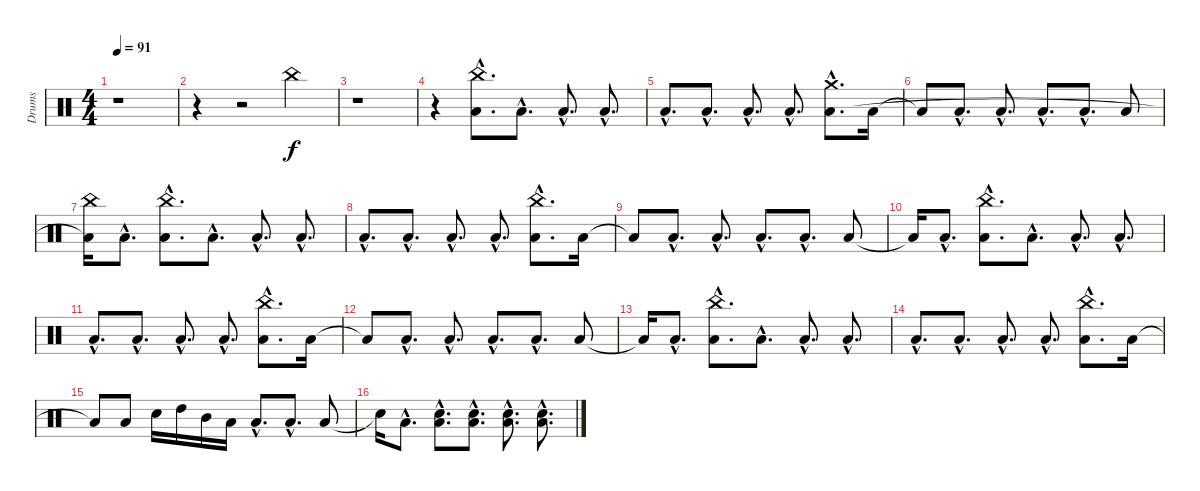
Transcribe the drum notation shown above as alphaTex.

\track ("Drums" "Drums") {instrument percussion}
\staff {score}
\articulation defaults
\ts (4 4)
\tempo 91
\clef neutral
\ks c
r.1{dy f} |
r.4 r.2 "China (hit)".4 |
r.1 |
r.4 ("China (hit)"{hac} "Low Tom (hit)"{hac}).8{d} "Low Tom (hit)"{hac}.8{d} "Low Tom (hit)"{hac}.8{d} "Low Tom (hit)"{hac}.8{d} |
"Low Tom (hit)"{hac}.8{d} "Low Tom (hit)"{hac}.8{d} "Low Tom (hit)"{hac}.8{d} "Low Tom (hit)"{hac}.8{d} ("Crash medium (hit)"{hac} "Low Tom (hit)"{hac}).8{d} "Low Tom (hit)".16 |
"Low Tom (hit)"{t}.8 "Low Tom (hit)"{hac}.8{d} "Low Tom (hit)"{hac}.8{d} "Low Tom (hit)"{hac}.8{d} "Low Tom (hit)"{hac}.8{d} "Low Tom (hit)".8 |
("China (hit)" "Low Tom (hit)"{t}).16 "Low Tom (hit)"{hac}.8{d} ("China (hit)"{hac} "Low Tom (hit)"{hac}).8{d} "Low Tom (hit)"{hac}.8{d} "Low Tom (hit)"{hac}.8{d} "Low Tom (hit)"{hac}.8{d} |
"Low Tom (hit)"{hac}.8{d} "Low Tom (hit)"{hac}.8{d} "Low Tom (hit)"{hac}.8{d} "Low Tom (hit)"{hac}.8{d} ("China (hit)"{hac} "Low Tom (hit)"{hac}).8{d} "Low Tom (hit)".16 |
"Low Tom (hit)"{t}.8 "Low Tom (hit)"{hac}.8{d} "Low Tom (hit)"{hac}.8{d} "Low Tom (hit)"{hac}.8{d} "Low Tom (hit)"{hac}.8{d} "Low Tom (hit)".8 |
"Low Tom (hit)"{t}.16 "Low Tom (hit)"{hac}.8{d} ("China (hit)"{hac} "Low Tom (hit)"{hac}).8{d} "Low Tom (hit)"{hac}.8{d} "Low Tom (hit)"{hac}.8{d} "Low Tom (hit)"{hac}.8{d} |
"Low Tom (hit)"{hac}.8{d} "Low Tom (hit)"{hac}.8{d} "Low Tom (hit)"{hac}.8{d} "Low Tom (hit)"{hac}.8{d} ("China (hit)"{hac} "Low Tom (hit)"{hac}).8{d} "Low Tom (hit)".16 |
"Low Tom (hit)"{t}.8 "Low Tom (hit)"{hac}.8{d} "Low Tom (hit)"{hac}.8{d} "Low Tom (hit)"{hac}.8{d} "Low Tom (hit)"{hac}.8{d} "Low Tom (hit)".8 |
"Low Tom (hit)"{t}.16 "Low Tom (hit)"{hac}.8{d} ("China (hit)"{hac} "Low Tom (hit)"{hac}).8{d} "Low Tom (hit)"{hac}.8{d} "Low Tom (hit)"{hac}.8{d} "Low Tom (hit)"{hac}.8{d} |
"Low Tom (hit)"{hac}.8{d} "Low Tom (hit)"{hac}.8{d} "Low Tom (hit)"{hac}.8{d} "Low Tom (hit)"{hac}.8{d} ("China (hit)"{hac} "Low Tom (hit)"{hac}).8{d} "Low Tom (hit)".16 |
"Low Tom (hit)"{t}.8 "Low Tom (hit)".8 "Electric Snare (hit)".16 "High Tom (hit)".16 "Mid Tom (hit)".16 "Low Tom (hit)".16 "Low Tom (hit)"{hac}.8{d} "Low Tom (hit)"{hac}.8{d} "Low Tom (hit)".8 |
"Snare (hit)"{t}.16 "Low Tom (hit)"{hac}.8{d} ("Low Tom (hit)"{hac} "Electric Snare (hit)"{hac}).8{d} ("Low Tom (hit)"{hac} "Electric Snare (hit)"{hac}).8{d} ("Low Tom (hit)"{hac} "Electric Snare (hit)"{hac}).8{d} ("Low Tom (hit)"{hac} "Electric Snare (hit)"{hac}).8{d}
